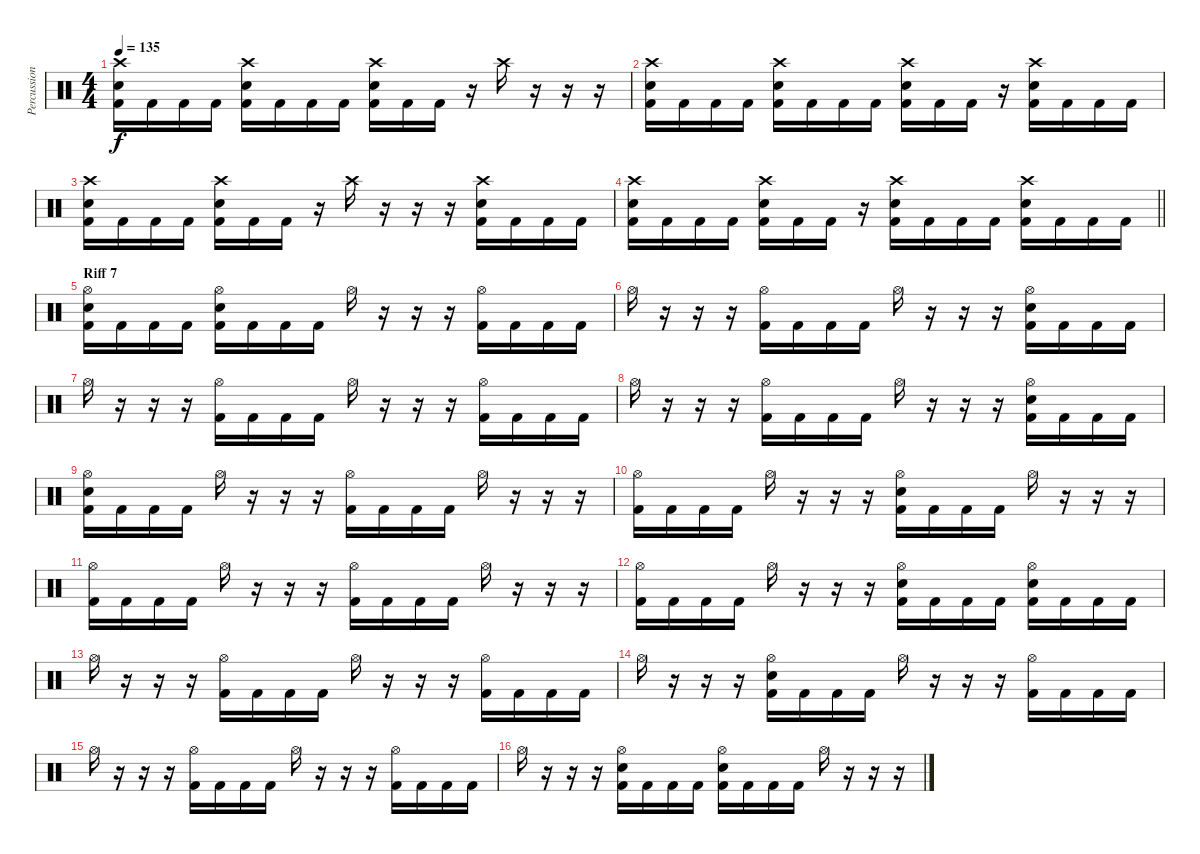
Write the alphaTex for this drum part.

\track ("Percussion" "Percussion") {instrument percussion}
\staff {score}
\articulation defaults
\ts (4 4)
\tempo 135
\clef neutral
\ks c
("Crash high (hit)" "Snare (hit) 2" "Kick (hit) 2").16{dy f} "Kick (hit) 2".16 "Kick (hit) 2".16 "Kick (hit) 2".16 ("Crash high (hit)" "Snare (hit) 2" "Kick (hit) 2").16 "Kick (hit) 2".16 "Kick (hit) 2".16 "Kick (hit) 2".16 ("Crash high (hit)" "Snare (hit) 2" "Kick (hit) 2").16 "Kick (hit) 2".16 "Kick (hit) 2".16 r.16 "Crash high (hit)".16 r.16 r.16 r.16 |
("Crash high (hit)" "Snare (hit) 2" "Kick (hit) 2").16 "Kick (hit) 2".16 "Kick (hit) 2".16 "Kick (hit) 2".16 ("Crash high (hit)" "Snare (hit) 2" "Kick (hit) 2").16 "Kick (hit) 2".16 "Kick (hit) 2".16 "Kick (hit) 2".16 ("Crash high (hit)" "Snare (hit) 2" "Kick (hit) 2").16 "Kick (hit) 2".16 "Kick (hit) 2".16 r.16 ("Crash high (hit)" "Snare (hit) 2" "Kick (hit) 2").16 "Kick (hit) 2".16 "Kick (hit) 2".16 "Kick (hit) 2".16 |
("Crash high (hit)" "Snare (hit) 2" "Kick (hit) 2").16 "Kick (hit) 2".16 "Kick (hit) 2".16 "Kick (hit) 2".16 ("Crash high (hit)" "Snare (hit) 2" "Kick (hit) 2").16 "Kick (hit) 2".16 "Kick (hit) 2".16 r.16 "Crash high (hit)".16 r.16 r.16 r.16 ("Crash high (hit)" "Snare (hit) 2" "Kick (hit) 2").16 "Kick (hit) 2".16 "Kick (hit) 2".16 "Kick (hit) 2".16 |
\barLineRight lightlight
("Crash high (hit)" "Snare (hit) 2" "Kick (hit) 2").16 "Kick (hit) 2".16 "Kick (hit) 2".16 "Kick (hit) 2".16 ("Crash high (hit)" "Snare (hit) 2" "Kick (hit) 2").16 "Kick (hit) 2".16 "Kick (hit) 2".16 r.16 ("Crash high (hit)" "Snare (hit) 2" "Kick (hit) 2").16 "Kick (hit) 2".16 "Kick (hit) 2".16 "Kick (hit) 2".16 ("Crash high (hit)" "Snare (hit) 2" "Kick (hit) 2").16 "Kick (hit) 2".16 "Kick (hit) 2".16 "Kick (hit) 2".16 |
\section ("" "Riff 7")
("Hi-Hat (open)" "Snare (hit) 2" "Kick (hit) 2").16 "Kick (hit) 2".16 "Kick (hit) 2".16 "Kick (hit) 2".16 ("Hi-Hat (open)" "Snare (hit) 2" "Kick (hit) 2").16 "Kick (hit) 2".16 "Kick (hit) 2".16 "Kick (hit) 2".16 "Hi-Hat (open)".16 r.16 r.16 r.16 ("Hi-Hat (open)" "Kick (hit) 2").16 "Kick (hit) 2".16 "Kick (hit) 2".16 "Kick (hit) 2".16 |
"Hi-Hat (open)".16 r.16 r.16 r.16 ("Hi-Hat (open)" "Kick (hit) 2").16 "Kick (hit) 2".16 "Kick (hit) 2".16 "Kick (hit) 2".16 "Hi-Hat (open)".16 r.16 r.16 r.16 ("Hi-Hat (open)" "Snare (hit) 2" "Kick (hit) 2").16 "Kick (hit) 2".16 "Kick (hit) 2".16 "Kick (hit) 2".16 |
"Hi-Hat (open)".16 r.16 r.16 r.16 ("Hi-Hat (open)" "Kick (hit) 2").16 "Kick (hit) 2".16 "Kick (hit) 2".16 "Kick (hit) 2".16 "Hi-Hat (open)".16 r.16 r.16 r.16 ("Hi-Hat (open)" "Kick (hit) 2").16 "Kick (hit) 2".16 "Kick (hit) 2".16 "Kick (hit) 2".16 |
"Hi-Hat (open)".16 r.16 r.16 r.16 ("Hi-Hat (open)" "Kick (hit) 2").16 "Kick (hit) 2".16 "Kick (hit) 2".16 "Kick (hit) 2".16 "Hi-Hat (open)".16 r.16 r.16 r.16 ("Hi-Hat (open)" "Snare (hit) 2" "Kick (hit) 2").16 "Kick (hit) 2".16 "Kick (hit) 2".16 "Kick (hit) 2".16 |
("Hi-Hat (open)" "Snare (hit) 2" "Kick (hit) 2").16 "Kick (hit) 2".16 "Kick (hit) 2".16 "Kick (hit) 2".16 "Hi-Hat (open)".16 r.16 r.16 r.16 ("Hi-Hat (open)" "Kick (hit) 2").16 "Kick (hit) 2".16 "Kick (hit) 2".16 "Kick (hit) 2".16 "Hi-Hat (open)".16 r.16 r.16 r.16 |
("Hi-Hat (open)" "Kick (hit) 2").16 "Kick (hit) 2".16 "Kick (hit) 2".16 "Kick (hit) 2".16 "Hi-Hat (open)".16 r.16 r.16 r.16 ("Hi-Hat (open)" "Snare (hit) 2" "Kick (hit) 2").16 "Kick (hit) 2".16 "Kick (hit) 2".16 "Kick (hit) 2".16 "Hi-Hat (open)".16 r.16 r.16 r.16 |
("Hi-Hat (open)" "Kick (hit) 2").16 "Kick (hit) 2".16 "Kick (hit) 2".16 "Kick (hit) 2".16 "Hi-Hat (open)".16 r.16 r.16 r.16 ("Hi-Hat (open)" "Kick (hit) 2").16 "Kick (hit) 2".16 "Kick (hit) 2".16 "Kick (hit) 2".16 "Hi-Hat (open)".16 r.16 r.16 r.16 |
("Hi-Hat (open)" "Kick (hit) 2").16 "Kick (hit) 2".16 "Kick (hit) 2".16 "Kick (hit) 2".16 "Hi-Hat (open)".16 r.16 r.16 r.16 ("Hi-Hat (open)" "Snare (hit) 2" "Kick (hit) 2").16 "Kick (hit) 2".16 "Kick (hit) 2".16 "Kick (hit) 2".16 ("Hi-Hat (open)" "Snare (hit) 2" "Kick (hit) 2").16 "Kick (hit) 2".16 "Kick (hit) 2".16 "Kick (hit) 2".16 |
"Hi-Hat (open)".16 r.16 r.16 r.16 ("Hi-Hat (open)" "Kick (hit) 2").16 "Kick (hit) 2".16 "Kick (hit) 2".16 "Kick (hit) 2".16 "Hi-Hat (open)".16 r.16 r.16 r.16 ("Hi-Hat (open)" "Kick (hit) 2").16 "Kick (hit) 2".16 "Kick (hit) 2".16 "Kick (hit) 2".16 |
"Hi-Hat (open)".16 r.16 r.16 r.16 ("Hi-Hat (open)" "Snare (hit) 2" "Kick (hit) 2").16 "Kick (hit) 2".16 "Kick (hit) 2".16 "Kick (hit) 2".16 "Hi-Hat (open)".16 r.16 r.16 r.16 ("Hi-Hat (open)" "Kick (hit) 2").16 "Kick (hit) 2".16 "Kick (hit) 2".16 "Kick (hit) 2".16 |
"Hi-Hat (open)".16 r.16 r.16 r.16 ("Hi-Hat (open)" "Kick (hit) 2").16 "Kick (hit) 2".16 "Kick (hit) 2".16 "Kick (hit) 2".16 "Hi-Hat (open)".16 r.16 r.16 r.16 ("Hi-Hat (open)" "Kick (hit) 2").16 "Kick (hit) 2".16 "Kick (hit) 2".16 "Kick (hit) 2".16 |
"Hi-Hat (open)".16 r.16 r.16 r.16 ("Hi-Hat (open)" "Snare (hit) 2" "Kick (hit) 2").16 "Kick (hit) 2".16 "Kick (hit) 2".16 "Kick (hit) 2".16 ("Hi-Hat (open)" "Snare (hit) 2" "Kick (hit) 2").16 "Kick (hit) 2".16 "Kick (hit) 2".16 "Kick (hit) 2".16 "Hi-Hat (open)".16 r.16 r.16 r.16
